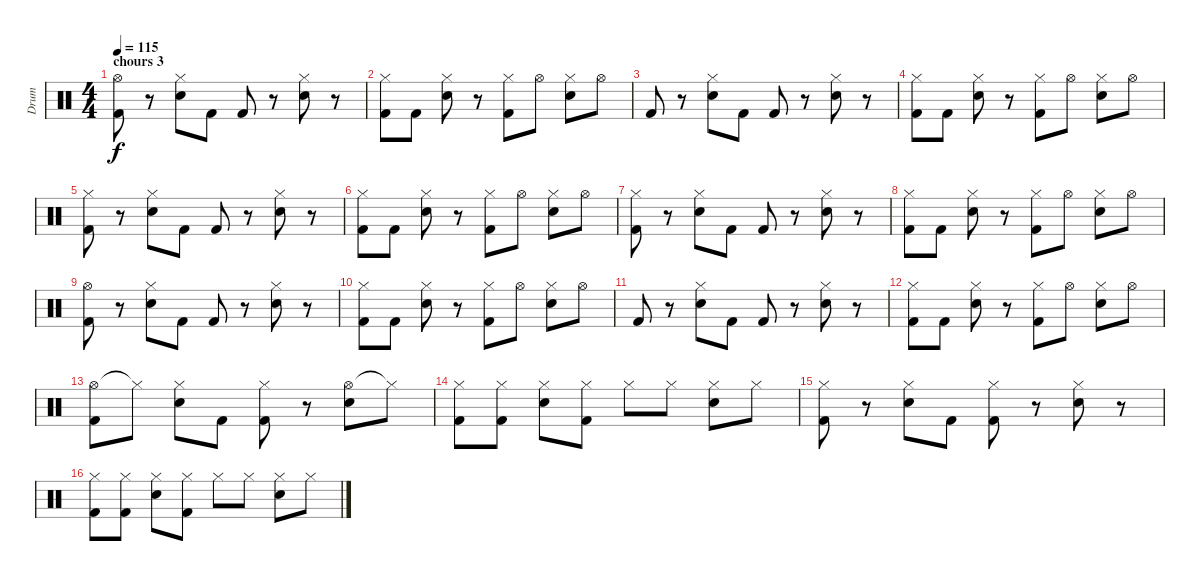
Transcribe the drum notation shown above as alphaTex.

\track ("Drum" "Drum") {instrument percussion}
\staff {score}
\articulation defaults
\ts (4 4)
\section ("" "chours 3")
\tempo 115
\clef neutral
\ks c
("Hi-Hat (open)" "Kick (hit) 2").8{dy f} r.8 ("Hi-Hat (closed)" "Electric Snare (hit)").8 "Kick (hit) 2".8 "Kick (hit) 2".8 r.8 ("Hi-Hat (closed)" "Electric Snare (hit)").8 r.8 |
("Hi-Hat (closed)" "Kick (hit) 2").8 "Kick (hit) 2".8 ("Hi-Hat (closed)" "Electric Snare (hit)").8 r.8 ("Hi-Hat (closed)" "Kick (hit) 2").8 "Hi-Hat (open)".8 ("Hi-Hat (closed)" "Electric Snare (hit)").8 "Hi-Hat (open)".8 |
"Kick (hit) 2".8 r.8 ("Hi-Hat (closed)" "Electric Snare (hit)").8 "Kick (hit) 2".8 "Kick (hit) 2".8 r.8 ("Hi-Hat (closed)" "Electric Snare (hit)").8 r.8 |
("Hi-Hat (closed)" "Kick (hit) 2").8 "Kick (hit) 2".8 ("Hi-Hat (closed)" "Electric Snare (hit)").8 r.8 ("Hi-Hat (closed)" "Kick (hit) 2").8 "Hi-Hat (open)".8 ("Hi-Hat (closed)" "Electric Snare (hit)").8 "Hi-Hat (open)".8 |
("Hi-Hat (closed)" "Kick (hit) 2").8 r.8 ("Hi-Hat (closed)" "Electric Snare (hit)").8 "Kick (hit) 2".8 "Kick (hit) 2".8 r.8 ("Hi-Hat (closed)" "Electric Snare (hit)").8 r.8 |
("Hi-Hat (closed)" "Kick (hit) 2").8 "Kick (hit) 2".8 ("Hi-Hat (closed)" "Electric Snare (hit)").8 r.8 ("Hi-Hat (closed)" "Kick (hit) 2").8 "Hi-Hat (open)".8 ("Hi-Hat (closed)" "Electric Snare (hit)").8 "Hi-Hat (open)".8 |
("Hi-Hat (closed)" "Kick (hit) 2").8 r.8 ("Hi-Hat (closed)" "Electric Snare (hit)").8 "Kick (hit) 2".8 "Kick (hit) 2".8 r.8 ("Hi-Hat (closed)" "Electric Snare (hit)").8 r.8 |
("Hi-Hat (closed)" "Kick (hit) 2").8 "Kick (hit) 2".8 ("Hi-Hat (closed)" "Electric Snare (hit)").8 r.8 ("Hi-Hat (closed)" "Kick (hit) 2").8 "Hi-Hat (open)".8 ("Hi-Hat (closed)" "Electric Snare (hit)").8 "Hi-Hat (open)".8 |
("Hi-Hat (open)" "Kick (hit) 2").8 r.8 ("Hi-Hat (closed)" "Electric Snare (hit)").8 "Kick (hit) 2".8 "Kick (hit) 2".8 r.8 ("Hi-Hat (closed)" "Electric Snare (hit)").8 r.8 |
("Hi-Hat (closed)" "Kick (hit) 2").8 "Kick (hit) 2".8 ("Hi-Hat (closed)" "Electric Snare (hit)").8 r.8 ("Hi-Hat (closed)" "Kick (hit) 2").8 "Hi-Hat (open)".8 ("Hi-Hat (closed)" "Electric Snare (hit)").8 "Hi-Hat (open)".8 |
"Kick (hit) 2".8 r.8 ("Hi-Hat (closed)" "Electric Snare (hit)").8 "Kick (hit) 2".8 "Kick (hit) 2".8 r.8 ("Hi-Hat (closed)" "Electric Snare (hit)").8 r.8 |
("Hi-Hat (closed)" "Kick (hit) 2").8 "Kick (hit) 2".8 ("Hi-Hat (closed)" "Electric Snare (hit)").8 r.8 ("Hi-Hat (closed)" "Kick (hit) 2").8 "Hi-Hat (open)".8 ("Hi-Hat (closed)" "Electric Snare (hit)").8 "Hi-Hat (open)".8 |
("Hi-Hat (open)" "Kick (hit) 2").8 "Hi-Hat (closed)"{t}.8 ("Hi-Hat (closed)" "Electric Snare (hit)").8 "Kick (hit) 2".8 ("Hi-Hat (closed)" "Kick (hit) 2").8 r.8 ("Hi-Hat (open)" "Electric Snare (hit)").8 "Hi-Hat (closed)"{t}.8 |
("Hi-Hat (closed)" "Kick (hit) 2").8 ("Hi-Hat (closed)" "Kick (hit) 2").8 ("Hi-Hat (closed)" "Electric Snare (hit)").8 ("Hi-Hat (closed)" "Kick (hit) 2").8 "Hi-Hat (closed)".8 "Hi-Hat (closed)".8 ("Hi-Hat (closed)" "Electric Snare (hit)").8 "Hi-Hat (closed)".8 |
("Hi-Hat (closed)" "Kick (hit) 2").8 r.8 ("Hi-Hat (closed)" "Electric Snare (hit)").8 "Kick (hit) 2".8 ("Hi-Hat (closed)" "Kick (hit) 2").8 r.8 ("Hi-Hat (closed)" "Electric Snare (hit)").8 r.8 |
("Hi-Hat (closed)" "Kick (hit) 2").8 ("Hi-Hat (closed)" "Kick (hit) 2").8 ("Hi-Hat (closed)" "Electric Snare (hit)").8 ("Hi-Hat (closed)" "Kick (hit) 2").8 "Hi-Hat (closed)".8 "Hi-Hat (closed)".8 ("Hi-Hat (closed)" "Electric Snare (hit)").8 "Hi-Hat (closed)".8
